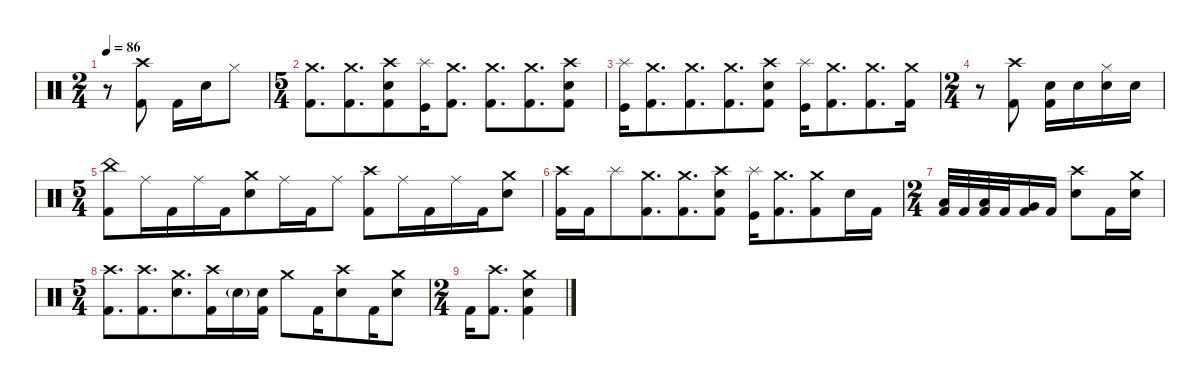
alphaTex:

\defaultSystemsLayout 4
\hideDynamics
\bracketExtendMode nobrackets
\singleTrackTrackNamePolicy hidden
\multiTrackTrackNamePolicy hidden
\otherSystemsTrackNameOrientation horizontal
\track ("Drums" "drm.") {instrument percussion}
\staff {score}
\articulation defaults
\ts (2 4)
\beaming (8 2 2)
\tempo 86
\clef neutral
\ks c
r.8{dy f beam Down} ("Crash high (hit)" "Kick (hit) 2").8{beam Down} "Kick (hit) 2".16{beam Down} "Snare (hit) 2".16{beam Down} "Hi-Hat (closed)".8{beam Down} |
\ts (5 4)
\beaming (8 6 4)
("Crash medium (hit)" "Kick (hit) 2").8{d beam Down} ("Crash medium (hit)" "Kick (hit) 2").8{d beam Down} ("Crash high (hit)" "Snare (hit) 2" "Kick (hit) 2").8{beam Down} ("Splash (hit)" "Kick (hit)").16{beam Down} ("Crash medium (hit)" "Kick (hit) 2").8{d beam Down} ("Crash medium (hit)" "Kick (hit) 2").8{d beam Down} ("Crash medium (hit)" "Kick (hit) 2").8{d beam Down} ("Crash high (hit)" "Snare (hit) 2" "Kick (hit) 2").8{beam Down} |
("Splash (hit)" "Kick (hit)").16{beam Down} ("Crash medium (hit)" "Kick (hit) 2").8{d beam Down} ("Crash medium (hit)" "Kick (hit) 2").8{d beam Down} ("Crash medium (hit)" "Kick (hit) 2").8{d beam Down} ("Crash high (hit)" "Snare (hit) 2" "Kick (hit) 2").8{beam Down} ("Splash (hit)" "Kick (hit)").16{beam Down} ("Crash medium (hit)" "Kick (hit) 2").8{d beam Down} ("Crash medium (hit)" "Kick (hit) 2").8{d beam Down} ("Crash medium (hit)" "Kick (hit) 2").16{beam Down} |
\ts (2 4)
\beaming (8 2 2)
r.8{beam Down} ("Crash high (hit)" "Kick (hit) 2").8{beam Down} ("Snare (hit) 2" "Kick (hit) 2").16{beam Down} "Snare (hit) 2".16{beam Down} ("Hi-Hat (closed)" "Snare (hit) 2").16{beam Down} "Snare (hit) 2".16{beam Down} |
\ts (5 4)
\beaming (8 6 4)
("China (hit)" "Kick (hit) 2").8{beam Down} "Ride (middle)".16{beam Down} "Kick (hit) 2".16{beam Down} "Ride (middle)".16{beam Down} "Kick (hit) 2".16{beam Down} ("Crash medium (hit)" "Snare (hit) 2").8{beam Down} "Ride (middle)".16{beam Down} "Kick (hit) 2".16{beam Down} "Ride (middle)".8{beam Down} ("Crash high (hit)" "Kick (hit) 2").8{beam Down} "Ride (middle)".16{beam Down} "Kick (hit) 2".16{beam Down} "Ride (middle)".16{beam Down} "Kick (hit) 2".16{beam Down} ("Crash medium (hit)" "Snare (hit) 2").8{beam Down} |
("Crash high (hit)" "Kick (hit) 2").16{beam Down} "Kick (hit) 2".16{beam Down} "Splash (hit)".8{beam Down} ("Crash medium (hit)" "Kick (hit) 2").8{d beam Down} ("Crash medium (hit)" "Kick (hit) 2").8{d beam Down} ("Crash high (hit)" "Snare (hit) 2" "Kick (hit) 2").8{beam Down} ("Splash (hit)" "Kick (hit)").16{beam Down} ("Crash medium (hit)" "Kick (hit) 2").8{d beam Down} ("Crash medium (hit)" "Kick (hit) 2").8{beam Down} "Snare (hit) 2".16{beam Down} "Kick (hit) 2".16{beam Down} |
\ts (2 4)
\beaming (8 2 2)
("Low Floor Tom (hit)" "Kick (hit) 2").32{beam Up} "Kick (hit) 2".32{beam Up} ("Low Floor Tom (hit)" "Kick (hit) 2").32{beam Up} "Kick (hit) 2".32{beam Up} ("Very Low Tom (hit)" "Kick (hit) 2").16{beam Up} "Kick (hit) 2".16{beam Up} ("Crash high (hit)" "Snare (hit) 2").8{beam Down} "Kick (hit) 2".16{beam Down} ("Crash medium (hit)" "Snare (hit) 2").16{beam Down} |
\ts (5 4)
\beaming (8 6 4)
("Crash high (hit)" "Kick (hit) 2").8{d beam Down} ("Crash high (hit)" "Kick (hit) 2").8{d beam Down} ("Crash medium (hit)" "Snare (hit) 2").8{d beam Down} ("Crash high (hit)" "Kick (hit) 2").16{beam Down} "Snare (hit) 2"{g}.16{dy mf beam Down} ("Snare (hit) 2" "Kick (hit) 2").16{dy f beam Down} "Crash medium (hit)".8{beam Down} "Kick (hit) 2".16{beam Down} ("Crash high (hit)" "Snare (hit) 2").8{beam Down} "Kick (hit) 2".16{beam Down} ("Crash medium (hit)" "Snare (hit) 2").8{beam Down} |
\ts (2 4)
\beaming (8 2 2)
"Kick (hit) 2".16{beam Down} ("Crash high (hit)" "Kick (hit) 2").8{d beam Down} ("Crash medium (hit)" "Snare (hit) 2" "Kick (hit) 2").4{beam Down}
